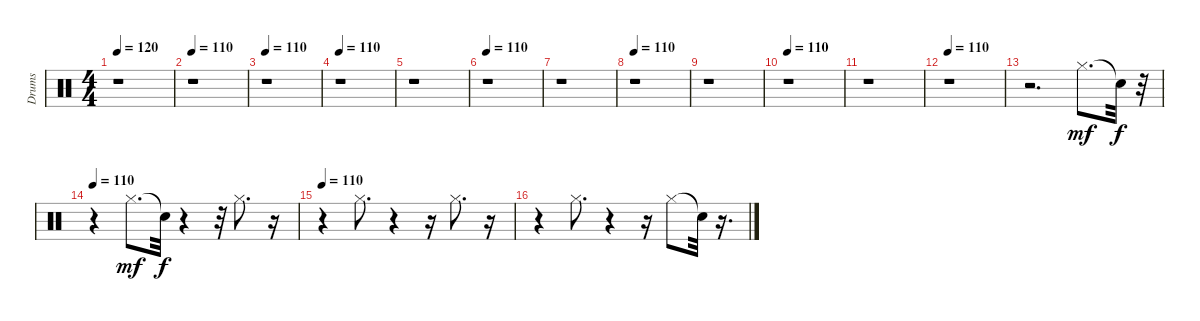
\track ("Drums" "Drums") {instrument percussion}
\staff {score}
\articulation defaults
\ts (4 4)
\tempo 120
\tempo 110
\tempo 120
\clef neutral
\ks c
r.1{dy mf} |
\tempo 110
r.1 |
\tempo 110
r.1 |
\tempo 110
r.1 |
r.1 |
\tempo 110
r.1 |
r.1 |
\tempo 110
r.1 |
r.1 |
\tempo 110
r.1 |
r.1 |
\tempo 110
r.1 |
r.2{d} "Hi-Hat (closed)".8{d} "Snare (hit)"{t}.32{dy f} r.32 |
\tempo 110
r.4 "Hi-Hat (closed)".8{d dy mf} "Snare (hit)"{t}.32{dy f} r.4 r.32 "Hi-Hat (closed)".8{d} r.16 |
\tempo 110
r.4 "Hi-Hat (closed)".8{d} r.4 r.16 "Hi-Hat (closed)".8{d} r.16 |
r.4 "Hi-Hat (closed)".8{d} r.4 r.16 "Hi-Hat (closed)".8 "Snare (hit)"{t}.32 r.16{d}
